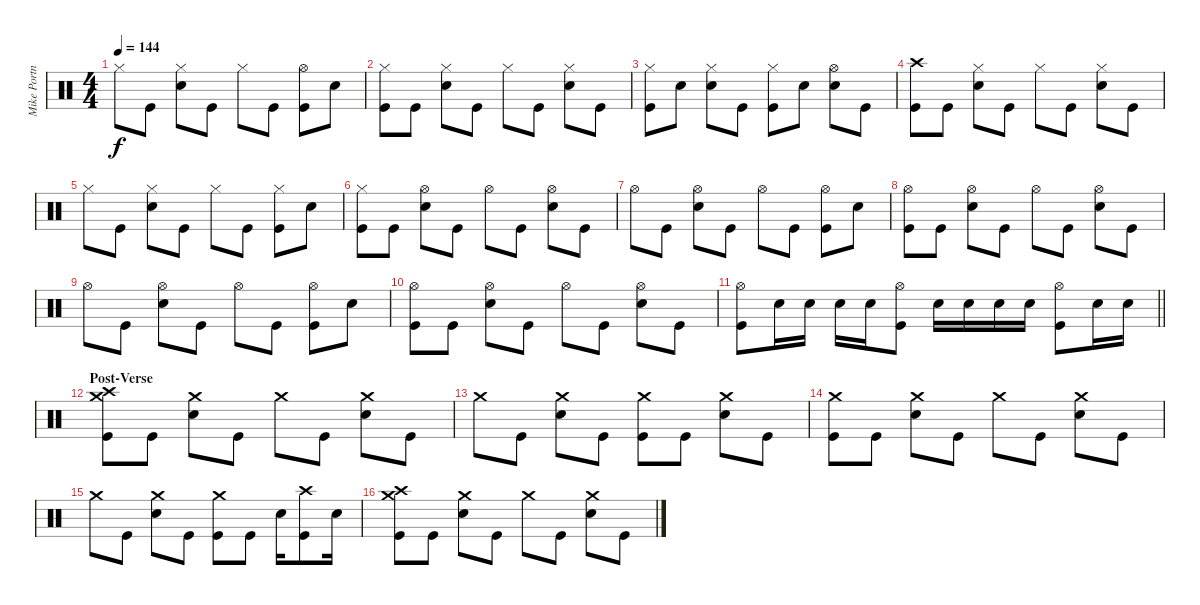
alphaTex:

\track ("Mike Portnoy" "Mike Portn") {instrument percussion}
\staff {score}
\articulation defaults
\ts (4 4)
\tempo 144
\clef neutral
\ks c "Hi-Hat (closed)".8{dy f} "Kick (hit)".8
("Hi-Hat (closed)" "Electric Snare (hit)").8 "Kick (hit)".8 "Hi-Hat (closed)".8 "Kick (hit)".8 ("Hi-Hat (open)" "Kick (hit)").8 "Electric Snare (hit)".8 |
("Hi-Hat (closed)" "Kick (hit)").8 "Kick (hit)".8 ("Hi-Hat (closed)" "Electric Snare (hit)").8 "Kick (hit)".8 "Hi-Hat (closed)".8 "Kick (hit)".8 ("Hi-Hat (closed)" "Electric Snare (hit)").8 "Kick (hit)".8 |
("Hi-Hat (closed)" "Kick (hit)").8 "Electric Snare (hit)".8 ("Hi-Hat (closed)" "Electric Snare (hit)").8 "Kick (hit)".8 ("Hi-Hat (closed)" "Kick (hit)").8 "Electric Snare (hit)".8 ("Hi-Hat (open)" "Electric Snare (hit)").8 "Kick (hit)".8 |
("Crash high (hit)" "Kick (hit)").8 "Kick (hit)".8 ("Hi-Hat (closed)" "Electric Snare (hit)").8 "Kick (hit)".8 "Hi-Hat (closed)".8 "Kick (hit)".8 ("Hi-Hat (closed)" "Electric Snare (hit)").8 "Kick (hit)".8 |
"Hi-Hat (closed)".8 "Kick (hit)".8 ("Hi-Hat (closed)" "Electric Snare (hit)").8 "Kick (hit)".8 "Hi-Hat (closed)".8 "Kick (hit)".8 ("Hi-Hat (closed)" "Kick (hit)").8 "Electric Snare (hit)".8 |
("Hi-Hat (closed)" "Kick (hit)").8 "Kick (hit)".8 ("Hi-Hat (open)" "Electric Snare (hit)").8 "Kick (hit)".8 "Hi-Hat (open)".8 "Kick (hit)".8 ("Hi-Hat (open)" "Electric Snare (hit)").8 "Kick (hit)".8 |
"Hi-Hat (open)".8 "Kick (hit)".8 ("Hi-Hat (open)" "Electric Snare (hit)").8 "Kick (hit)".8 "Hi-Hat (open)".8 "Kick (hit)".8 ("Hi-Hat (open)" "Kick (hit)").8 "Electric Snare (hit)".8 |
("Hi-Hat (open)" "Kick (hit)").8 "Kick (hit)".8 ("Hi-Hat (open)" "Electric Snare (hit)").8 "Kick (hit)".8 "Hi-Hat (open)".8 "Kick (hit)".8 ("Hi-Hat (open)" "Electric Snare (hit)").8 "Kick (hit)".8 |
"Hi-Hat (open)".8 "Kick (hit)".8 ("Hi-Hat (open)" "Electric Snare (hit)").8 "Kick (hit)".8 "Hi-Hat (open)".8 "Kick (hit)".8 ("Hi-Hat (open)" "Kick (hit)").8 "Electric Snare (hit)".8 |
("Hi-Hat (open)" "Kick (hit)").8 "Kick (hit)".8 ("Hi-Hat (open)" "Electric Snare (hit)").8 "Kick (hit)".8 "Hi-Hat (open)".8 "Kick (hit)".8 ("Hi-Hat (open)" "Electric Snare (hit)").8 "Kick (hit)".8 |
\barLineRight lightlight
("Hi-Hat (open)" "Kick (hit)").8 "Electric Snare (hit)".16 "Electric Snare (hit)".16 "Electric Snare (hit)".16 "Electric Snare (hit)".16 ("Hi-Hat (open)" "Kick (hit)").8 "Electric Snare (hit)".16 "Electric Snare (hit)".16 "Electric Snare (hit)".16 "Electric Snare (hit)".16 ("Hi-Hat (open)" "Kick (hit)").8 "Electric Snare (hit)".16 "Electric Snare (hit)".16 |
\section ("" "Post-Verse")
("Crash high (hit)" "Crash medium (hit)" "Kick (hit)").8 "Kick (hit)".8 ("Crash medium (hit)" "Electric Snare (hit)").8 "Kick (hit)".8 "Crash medium (hit)".8 "Kick (hit)".8 ("Crash medium (hit)" "Electric Snare (hit)").8 "Kick (hit)".8 |
"Crash medium (hit)".8 "Kick (hit)".8 ("Crash medium (hit)" "Electric Snare (hit)").8 "Kick (hit)".8 ("Crash medium (hit)" "Kick (hit)").8 "Kick (hit)".8 ("Crash medium (hit)" "Electric Snare (hit)").8 "Kick (hit)".8 |
("Crash medium (hit)" "Kick (hit)").8 "Kick (hit)".8 ("Crash medium (hit)" "Electric Snare (hit)").8 "Kick (hit)".8 "Crash medium (hit)".8 "Kick (hit)".8 ("Crash medium (hit)" "Electric Snare (hit)").8 "Kick (hit)".8 |
"Crash medium (hit)".8 "Kick (hit)".8 ("Crash medium (hit)" "Electric Snare (hit)").8 "Kick (hit)".8 ("Crash medium (hit)" "Kick (hit)").8 "Kick (hit)".8 "Electric Snare (hit)".16 ("Crash high (hit)" "Kick (hit)").8 "Electric Snare (hit)".16 |
("Crash high (hit)" "Crash medium (hit)" "Kick (hit)").8 "Kick (hit)".8 ("Crash medium (hit)" "Electric Snare (hit)").8 "Kick (hit)".8 "Crash medium (hit)".8 "Kick (hit)".8 ("Crash medium (hit)" "Electric Snare (hit)").8 "Kick (hit)".8
